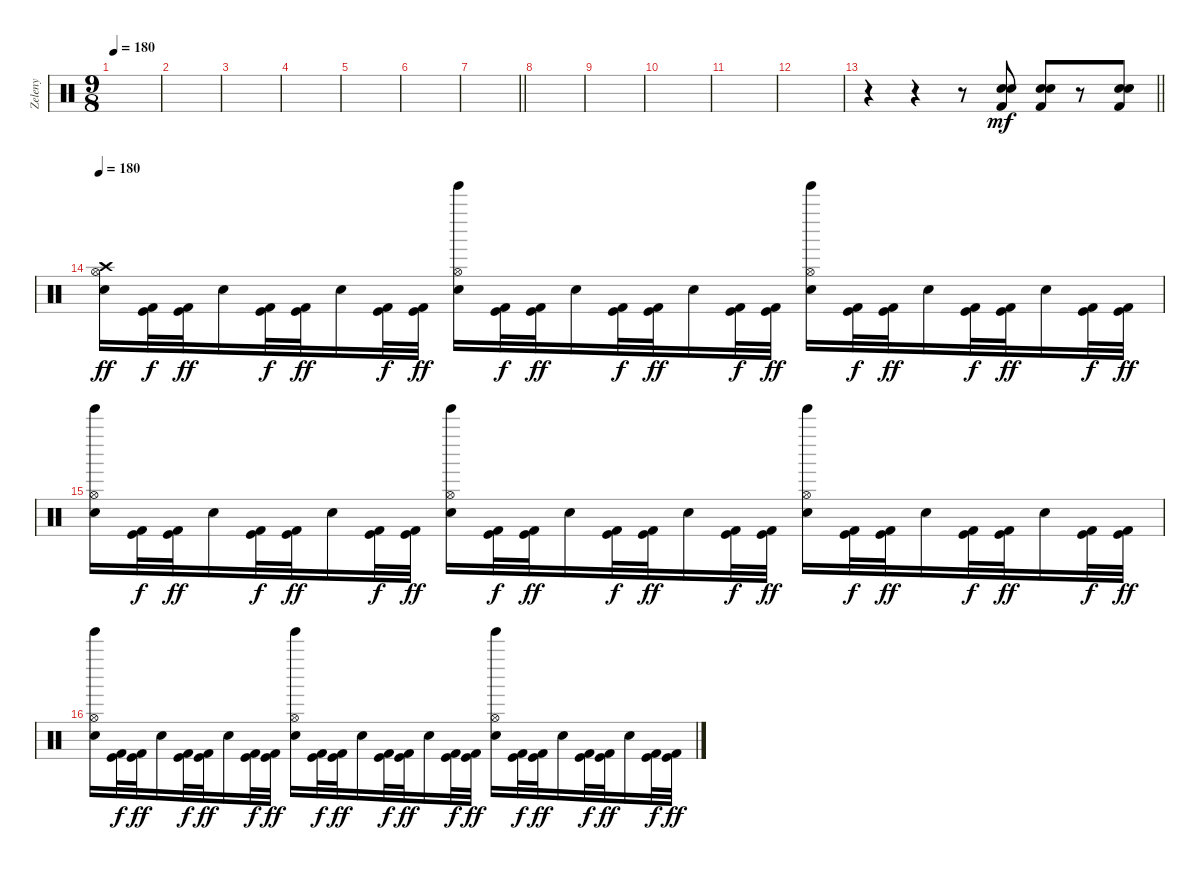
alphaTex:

\track ("Zeleny" "Zeleny") {instrument percussion}
\staff {score}
\articulation defaults
\ts (9 8)
\tempo 180
\clef neutral
\ks c
|
|
|
|
|
|
\barLineRight lightlight
|
\section ("" "")
|
|
|
|
|
\barLineRight lightlight
r.4 r.4 r.8 ("Snare (hit) 2" "Snare (hit) 2" "Kick (hit) 2").8{dy mf} ("Snare (hit) 2" "Snare (hit) 2" "Kick (hit) 2").8 r.8 ("Kick (hit) 2" "Snare (hit) 2" "Snare (hit) 2").8 |
\section ("" "")
\tempo 176
\tempo 180
("Crash high (hit)" "Hi-Hat (open)" "Snare (hit) 2").16{dy ff} ("Kick (hit)" "Kick (hit) 2").32{dy f} ("Kick (hit)" "Kick (hit) 2").32{dy ff} "Snare (hit) 2".16 ("Kick (hit)" "Kick (hit) 2").32{dy f} ("Kick (hit)" "Kick (hit) 2").32{dy ff} "Snare (hit) 2".16 ("Kick (hit)" "Kick (hit) 2").32{dy f} ("Kick (hit)" "Kick (hit) 2").32{dy ff} ("Tinkle Bell (hit)" "Hi-Hat (open)" "Snare (hit) 2").16 ("Kick (hit)" "Kick (hit) 2").32{dy f} ("Kick (hit)" "Kick (hit) 2").32{dy ff} "Snare (hit) 2".16 ("Kick (hit)" "Kick (hit) 2").32{dy f} ("Kick (hit)" "Kick (hit) 2").32{dy ff} "Snare (hit) 2".16 ("Kick (hit)" "Kick (hit) 2").32{dy f} ("Kick (hit)" "Kick (hit) 2").32{dy ff} ("Tinkle Bell (hit)" "Hi-Hat (open)" "Snare (hit) 2").16 ("Kick (hit)" "Kick (hit) 2").32{dy f} ("Kick (hit)" "Kick (hit) 2").32{dy ff} "Snare (hit) 2".16 ("Kick (hit)" "Kick (hit) 2").32{dy f} ("Kick (hit)" "Kick (hit) 2").32{dy ff} "Snare (hit) 2".16 ("Kick (hit)" "Kick (hit) 2").32{dy f} ("Kick (hit)" "Kick (hit) 2").32{dy ff} |
("Tinkle Bell (hit)" "Hi-Hat (open)" "Snare (hit) 2").16 ("Kick (hit)" "Kick (hit) 2").32{dy f} ("Kick (hit)" "Kick (hit) 2").32{dy ff} "Snare (hit) 2".16 ("Kick (hit)" "Kick (hit) 2").32{dy f} ("Kick (hit)" "Kick (hit) 2").32{dy ff} "Snare (hit) 2".16 ("Kick (hit)" "Kick (hit) 2").32{dy f} ("Kick (hit)" "Kick (hit) 2").32{dy ff} ("Tinkle Bell (hit)" "Hi-Hat (open)" "Snare (hit) 2").16 ("Kick (hit)" "Kick (hit) 2").32{dy f} ("Kick (hit)" "Kick (hit) 2").32{dy ff} "Snare (hit) 2".16 ("Kick (hit)" "Kick (hit) 2").32{dy f} ("Kick (hit)" "Kick (hit) 2").32{dy ff} "Snare (hit) 2".16 ("Kick (hit)" "Kick (hit) 2").32{dy f} ("Kick (hit)" "Kick (hit) 2").32{dy ff} ("Tinkle Bell (hit)" "Hi-Hat (open)" "Snare (hit) 2").16 ("Kick (hit)" "Kick (hit) 2").32{dy f} ("Kick (hit)" "Kick (hit) 2").32{dy ff} "Snare (hit) 2".16 ("Kick (hit)" "Kick (hit) 2").32{dy f} ("Kick (hit)" "Kick (hit) 2").32{dy ff} "Snare (hit) 2".16 ("Kick (hit)" "Kick (hit) 2").32{dy f} ("Kick (hit)" "Kick (hit) 2").32{dy ff} |
("Tinkle Bell (hit)" "Hi-Hat (open)" "Snare (hit) 2").16 ("Kick (hit)" "Kick (hit) 2").32{dy f} ("Kick (hit)" "Kick (hit) 2").32{dy ff} "Snare (hit) 2".16 ("Kick (hit)" "Kick (hit) 2").32{dy f} ("Kick (hit)" "Kick (hit) 2").32{dy ff} "Snare (hit) 2".16 ("Kick (hit)" "Kick (hit) 2").32{dy f} ("Kick (hit)" "Kick (hit) 2").32{dy ff} ("Tinkle Bell (hit)" "Hi-Hat (open)" "Snare (hit) 2").16 ("Kick (hit)" "Kick (hit) 2").32{dy f} ("Kick (hit)" "Kick (hit) 2").32{dy ff} "Snare (hit) 2".16 ("Kick (hit)" "Kick (hit) 2").32{dy f} ("Kick (hit)" "Kick (hit) 2").32{dy ff} "Snare (hit) 2".16 ("Kick (hit)" "Kick (hit) 2").32{dy f} ("Kick (hit)" "Kick (hit) 2").32{dy ff} ("Tinkle Bell (hit)" "Hi-Hat (open)" "Snare (hit) 2").16 ("Kick (hit)" "Kick (hit) 2").32{dy f} ("Kick (hit)" "Kick (hit) 2").32{dy ff} "Snare (hit) 2".16 ("Kick (hit)" "Kick (hit) 2").32{dy f} ("Kick (hit)" "Kick (hit) 2").32{dy ff} "Snare (hit) 2".16 ("Kick (hit)" "Kick (hit) 2").32{dy f} ("Kick (hit)" "Kick (hit) 2").32{dy ff}
